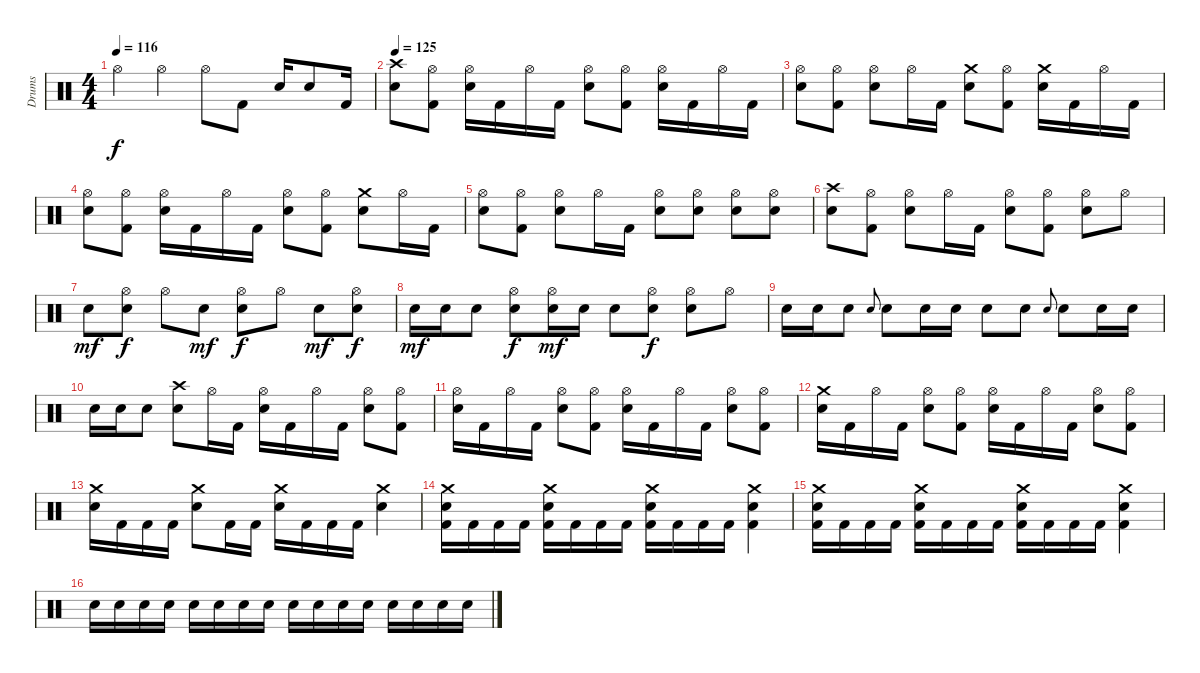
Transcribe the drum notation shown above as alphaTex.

\track ("Drums" "Drums") {instrument percussion}
\staff {score}
\articulation defaults
\ts (4 4)
\tempo 116
\clef neutral
\ks c "Hi-Hat (open)".4{dy f} "Hi-Hat (open)".4 "Hi-Hat (open)".8 "Kick (hit) 2".8 "Snare (hit) 2".16 "Snare (hit) 2".8 "Kick (hit) 2".16
|
\tempo 125
("Crash high (hit)" "Snare (hit) 2").8 ("Hi-Hat (open)" "Kick (hit) 2").8 ("Hi-Hat (open)" "Snare (hit) 2").16 "Kick (hit) 2".16 "Hi-Hat (open)".16 "Kick (hit) 2".16 ("Hi-Hat (open)" "Snare (hit) 2").8 ("Hi-Hat (open)" "Kick (hit) 2").8 ("Hi-Hat (open)" "Snare (hit) 2").16 "Kick (hit) 2".16 "Hi-Hat (open)".16 "Kick (hit) 2".16 |
("Hi-Hat (open)" "Snare (hit) 2").8 ("Hi-Hat (open)" "Kick (hit) 2").8 ("Hi-Hat (open)" "Snare (hit) 2").8 "Hi-Hat (open)".16 "Kick (hit) 2".16 ("Crash medium (hit)" "Snare (hit) 2").8 ("Hi-Hat (open)" "Kick (hit) 2").8 ("Crash medium (hit)" "Snare (hit) 2").16 "Kick (hit) 2".16 "Hi-Hat (open)".16 "Kick (hit) 2".16 |
("Hi-Hat (open)" "Snare (hit) 2").8 ("Hi-Hat (open)" "Kick (hit) 2").8 ("Hi-Hat (open)" "Snare (hit) 2").16 "Kick (hit) 2".16 "Hi-Hat (open)".16 "Kick (hit) 2".16 ("Hi-Hat (open)" "Snare (hit) 2").8 ("Hi-Hat (open)" "Kick (hit) 2").8 ("Crash medium (hit)" "Snare (hit) 2").8 "Hi-Hat (open)".16 "Kick (hit) 2".16 |
("Hi-Hat (open)" "Snare (hit) 2").8 ("Hi-Hat (open)" "Kick (hit) 2").8 ("Hi-Hat (open)" "Snare (hit) 2").8 "Hi-Hat (open)".16 "Kick (hit) 2".16 ("Hi-Hat (open)" "Snare (hit) 2").8 ("Hi-Hat (open)" "Snare (hit) 2").8 ("Hi-Hat (open)" "Snare (hit) 2").8 ("Hi-Hat (open)" "Snare (hit) 2").8 |
("Crash high (hit)" "Snare (hit) 2").8 ("Hi-Hat (open)" "Kick (hit) 2").8 ("Hi-Hat (open)" "Snare (hit) 2").8 "Hi-Hat (open)".16 "Kick (hit) 2".16 ("Hi-Hat (open)" "Snare (hit) 2").8 ("Hi-Hat (open)" "Kick (hit) 2").8 ("Hi-Hat (open)" "Snare (hit) 2").8 "Hi-Hat (open)".8 |
"Snare (hit) 2".8{dy mf} ("Hi-Hat (open)" "Snare (hit) 2").8{dy f} "Hi-Hat (open)".8 "Snare (hit) 2".8{dy mf} ("Hi-Hat (open)" "Snare (hit) 2").8{dy f} "Hi-Hat (open)".8 "Snare (hit) 2".8{dy mf} ("Hi-Hat (open)" "Snare (hit) 2").8{dy f} |
"Snare (hit) 2".16{dy mf} "Snare (hit) 2".16 "Snare (hit) 2".8 ("Hi-Hat (open)" "Snare (hit) 2").8{dy f} ("Hi-Hat (open)" "Snare (hit) 2").16{dy mf} "Snare (hit) 2".16 "Snare (hit) 2".8 ("Hi-Hat (open)" "Snare (hit) 2").8{dy f} ("Hi-Hat (open)" "Snare (hit) 2").8 "Hi-Hat (open)".8 |
"Snare (hit) 2".16 "Snare (hit) 2".16 "Snare (hit) 2".8 "Snare (hit) 2".8{gr onbeat} "Snare (hit) 2".8 "Snare (hit) 2".16 "Snare (hit) 2".16 "Snare (hit) 2".8 "Snare (hit) 2".8 "Snare (hit) 2".8{gr onbeat} "Snare (hit) 2".8 "Snare (hit) 2".16 "Snare (hit) 2".16 |
"Snare (hit) 2".16 "Snare (hit) 2".16 "Snare (hit) 2".8 ("Crash high (hit)" "Snare (hit) 2").8 "Hi-Hat (open)".16 "Kick (hit) 2".16 ("Hi-Hat (open)" "Snare (hit) 2").16 "Kick (hit) 2".16 "Hi-Hat (open)".16 "Kick (hit) 2".16 ("Hi-Hat (open)" "Snare (hit) 2").8 ("Hi-Hat (open)" "Kick (hit) 2").8 |
("Hi-Hat (open)" "Snare (hit) 2").16 "Kick (hit) 2".16 "Hi-Hat (open)".16 "Kick (hit) 2".16 ("Hi-Hat (open)" "Snare (hit) 2").8 ("Hi-Hat (open)" "Kick (hit) 2").8 ("Hi-Hat (open)" "Snare (hit) 2").16 "Kick (hit) 2".16 "Hi-Hat (open)".16 "Kick (hit) 2".16 ("Hi-Hat (open)" "Snare (hit) 2").8 ("Hi-Hat (open)" "Kick (hit) 2").8 |
("Crash medium (hit)" "Snare (hit) 2").16 "Kick (hit) 2".16 "Hi-Hat (open)".16 "Kick (hit) 2".16 ("Hi-Hat (open)" "Snare (hit) 2").8 ("Hi-Hat (open)" "Kick (hit) 2").8 ("Hi-Hat (open)" "Snare (hit) 2").16 "Kick (hit) 2".16 "Hi-Hat (open)".16 "Kick (hit) 2".16 ("Hi-Hat (open)" "Snare (hit) 2").8 ("Hi-Hat (open)" "Kick (hit) 2").8 |
("Crash medium (hit)" "Snare (hit) 2").16 "Kick (hit) 2".16 "Kick (hit) 2".16 "Kick (hit) 2".16 ("Crash medium (hit)" "Snare (hit) 2").8 "Kick (hit) 2".16 "Kick (hit) 2".16 ("Crash medium (hit)" "Snare (hit) 2").16 "Kick (hit) 2".16 "Kick (hit) 2".16 "Kick (hit) 2".16 ("Crash medium (hit)" "Snare (hit) 2").4 |
("Crash medium (hit)" "Snare (hit) 2" "Kick (hit) 2").16 "Kick (hit) 2".16 "Kick (hit) 2".16 "Kick (hit) 2".16 ("Crash medium (hit)" "Snare (hit) 2" "Kick (hit) 2").16 "Kick (hit) 2".16 "Kick (hit) 2".16 "Kick (hit) 2".16 ("Crash medium (hit)" "Snare (hit) 2" "Kick (hit) 2").16 "Kick (hit) 2".16 "Kick (hit) 2".16 "Kick (hit) 2".16 ("Crash medium (hit)" "Snare (hit) 2" "Kick (hit) 2").4 |
("Crash medium (hit)" "Snare (hit) 2" "Kick (hit) 2").16 "Kick (hit) 2".16 "Kick (hit) 2".16 "Kick (hit) 2".16 ("Crash medium (hit)" "Snare (hit) 2" "Kick (hit) 2").16 "Kick (hit) 2".16 "Kick (hit) 2".16 "Kick (hit) 2".16 ("Crash medium (hit)" "Snare (hit) 2" "Kick (hit) 2").16 "Kick (hit) 2".16 "Kick (hit) 2".16 "Kick (hit) 2".16 ("Crash medium (hit)" "Snare (hit) 2" "Kick (hit) 2").4 |
"Snare (hit) 2".16 "Snare (hit) 2".16 "Snare (hit) 2".16 "Snare (hit) 2".16 "Snare (hit) 2".16 "Snare (hit) 2".16 "Snare (hit) 2".16 "Snare (hit) 2".16 "Snare (hit) 2".16 "Snare (hit) 2".16 "Snare (hit) 2".16 "Snare (hit) 2".16 "Snare (hit) 2".16 "Snare (hit) 2".16 "Snare (hit) 2".16 "Snare (hit) 2".16
